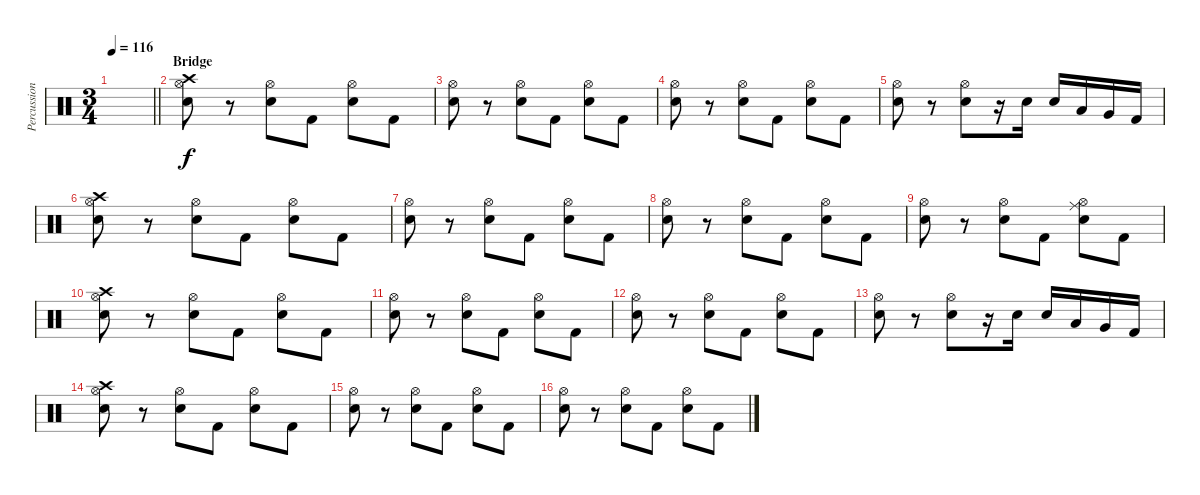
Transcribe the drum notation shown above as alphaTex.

\track ("Percussion" "Percussion") {instrument percussion}
\staff {score}
\articulation defaults
\ts (3 4)
\tempo 116
\clef neutral
\barLineRight lightlight
\ks c
|
\section ("" "Bridge")
("Crash high (hit)" "Hi-Hat (open)" "Electric Snare (hit)").8{volume 14} r.8 ("Hi-Hat (open)" "Electric Snare (hit)").8 "Kick (hit) 2".8 ("Hi-Hat (open)" "Electric Snare (hit)").8 "Kick (hit) 2".8 |
("Hi-Hat (open)" "Electric Snare (hit)").8 r.8 ("Hi-Hat (open)" "Electric Snare (hit)").8 "Kick (hit) 2".8 ("Hi-Hat (open)" "Electric Snare (hit)").8 "Kick (hit) 2".8 |
("Hi-Hat (open)" "Electric Snare (hit)").8 r.8 ("Hi-Hat (open)" "Electric Snare (hit)").8 "Kick (hit) 2".8 ("Hi-Hat (open)" "Electric Snare (hit)").8 "Kick (hit) 2".8 |
("Hi-Hat (open)" "Electric Snare (hit)").8 r.8 ("Hi-Hat (open)" "Electric Snare (hit)").8 r.16 "Electric Snare (hit)".16 "Electric Snare (hit)".16 "Low Tom (hit)".16 "Very Low Tom (hit)".16 "Kick (hit) 2".16 |
("Crash high (hit)" "Hi-Hat (open)" "Electric Snare (hit)").8 r.8 ("Hi-Hat (open)" "Electric Snare (hit)").8 "Kick (hit) 2".8 ("Hi-Hat (open)" "Electric Snare (hit)").8 "Kick (hit) 2".8 |
("Hi-Hat (open)" "Electric Snare (hit)").8 r.8 ("Hi-Hat (open)" "Electric Snare (hit)").8 "Kick (hit) 2".8 ("Hi-Hat (open)" "Electric Snare (hit)").8 "Kick (hit) 2".8 |
("Hi-Hat (open)" "Electric Snare (hit)").8 r.8 ("Hi-Hat (open)" "Electric Snare (hit)").8 "Kick (hit) 2".8 ("Hi-Hat (open)" "Electric Snare (hit)").8 "Kick (hit) 2".8 |
("Hi-Hat (open)" "Electric Snare (hit)").8 r.8 ("Hi-Hat (open)" "Electric Snare (hit)").8 "Kick (hit) 2".8 ("Ride (middle)" "Hi-Hat (open)" "Electric Snare (hit)").8 "Kick (hit) 2".8 |
("Crash high (hit)" "Hi-Hat (open)" "Electric Snare (hit)").8 r.8 ("Hi-Hat (open)" "Electric Snare (hit)").8 "Kick (hit) 2".8 ("Hi-Hat (open)" "Electric Snare (hit)").8 "Kick (hit) 2".8 |
("Hi-Hat (open)" "Electric Snare (hit)").8 r.8 ("Hi-Hat (open)" "Electric Snare (hit)").8 "Kick (hit) 2".8 ("Hi-Hat (open)" "Electric Snare (hit)").8 "Kick (hit) 2".8 |
("Hi-Hat (open)" "Electric Snare (hit)").8 r.8 ("Hi-Hat (open)" "Electric Snare (hit)").8 "Kick (hit) 2".8 ("Hi-Hat (open)" "Electric Snare (hit)").8 "Kick (hit) 2".8 |
("Hi-Hat (open)" "Electric Snare (hit)").8 r.8 ("Hi-Hat (open)" "Electric Snare (hit)").8 r.16 "Electric Snare (hit)".16 "Electric Snare (hit)".16 "Low Tom (hit)".16 "Very Low Tom (hit)".16 "Kick (hit) 2".16 |
("Crash high (hit)" "Hi-Hat (open)" "Electric Snare (hit)").8 r.8 ("Hi-Hat (open)" "Electric Snare (hit)").8 "Kick (hit) 2".8 ("Hi-Hat (open)" "Electric Snare (hit)").8 "Kick (hit) 2".8 |
("Hi-Hat (open)" "Electric Snare (hit)").8 r.8 ("Hi-Hat (open)" "Electric Snare (hit)").8 "Kick (hit) 2".8 ("Hi-Hat (open)" "Electric Snare (hit)").8 "Kick (hit) 2".8 |
("Hi-Hat (open)" "Electric Snare (hit)").8 r.8 ("Hi-Hat (open)" "Electric Snare (hit)").8 "Kick (hit) 2".8 ("Hi-Hat (open)" "Electric Snare (hit)").8 "Kick (hit) 2".8
